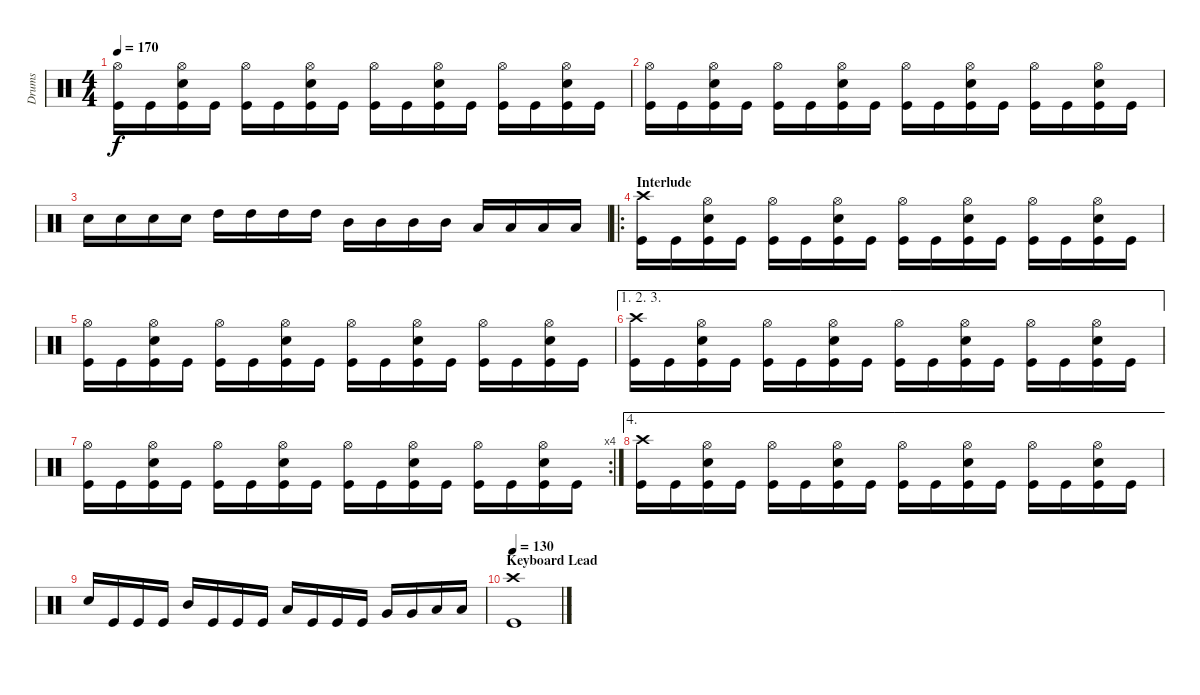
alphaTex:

\track ("Drums" "Drums") {instrument percussion}
\staff {score}
\articulation defaults
\ts (4 4)
\tempo 170
\clef neutral
\ks c
("Hi-Hat (open)" "Kick (hit)").16{dy f} "Kick (hit)".16 ("Hi-Hat (open)" "Snare (hit) 2" "Kick (hit)").16 "Kick (hit)".16 ("Hi-Hat (open)" "Kick (hit)").16 "Kick (hit)".16 ("Hi-Hat (open)" "Snare (hit) 2" "Kick (hit)").16 "Kick (hit)".16 ("Hi-Hat (open)" "Kick (hit)").16 "Kick (hit)".16 ("Hi-Hat (open)" "Snare (hit) 2" "Kick (hit)").16 "Kick (hit)".16 ("Hi-Hat (open)" "Kick (hit)").16 "Kick (hit)".16 ("Hi-Hat (open)" "Snare (hit) 2" "Kick (hit)").16 "Kick (hit)".16 |
("Hi-Hat (open)" "Kick (hit)").16 "Kick (hit)".16 ("Hi-Hat (open)" "Snare (hit) 2" "Kick (hit)").16 "Kick (hit)".16 ("Hi-Hat (open)" "Kick (hit)").16 "Kick (hit)".16 ("Hi-Hat (open)" "Snare (hit) 2" "Kick (hit)").16 "Kick (hit)".16 ("Hi-Hat (open)" "Kick (hit)").16 "Kick (hit)".16 ("Hi-Hat (open)" "Snare (hit) 2" "Kick (hit)").16 "Kick (hit)".16 ("Hi-Hat (open)" "Kick (hit)").16 "Kick (hit)".16 ("Hi-Hat (open)" "Snare (hit) 2" "Kick (hit)").16 "Kick (hit)".16 |
"Snare (hit) 2".16 "Snare (hit) 2".16 "Snare (hit) 2".16 "Snare (hit) 2".16 "High Tom (hit)".16 "High Tom (hit)".16 "High Tom (hit)".16 "High Tom (hit)".16 "Mid Tom (hit)".16 "Mid Tom (hit)".16 "Mid Tom (hit)".16 "Mid Tom (hit)".16 "Low Tom (hit)".16 "Low Tom (hit)".16 "Low Tom (hit)".16 "Low Tom (hit)".16 |
\ro
\section ("" "Interlude")
("Crash high (hit)" "Kick (hit)").16 "Kick (hit)".16 ("Hi-Hat (open)" "Snare (hit) 2" "Kick (hit)").16 "Kick (hit)".16 ("Hi-Hat (open)" "Kick (hit)").16 "Kick (hit)".16 ("Hi-Hat (open)" "Snare (hit) 2" "Kick (hit)").16 "Kick (hit)".16 ("Hi-Hat (open)" "Kick (hit)").16 "Kick (hit)".16 ("Hi-Hat (open)" "Snare (hit) 2" "Kick (hit)").16 "Kick (hit)".16 ("Hi-Hat (open)" "Kick (hit)").16 "Kick (hit)".16 ("Hi-Hat (open)" "Snare (hit) 2" "Kick (hit)").16 "Kick (hit)".16 |
("Hi-Hat (open)" "Kick (hit)").16 "Kick (hit)".16 ("Hi-Hat (open)" "Snare (hit) 2" "Kick (hit)").16 "Kick (hit)".16 ("Hi-Hat (open)" "Kick (hit)").16 "Kick (hit)".16 ("Hi-Hat (open)" "Snare (hit) 2" "Kick (hit)").16 "Kick (hit)".16 ("Hi-Hat (open)" "Kick (hit)").16 "Kick (hit)".16 ("Hi-Hat (open)" "Snare (hit) 2" "Kick (hit)").16 "Kick (hit)".16 ("Hi-Hat (open)" "Kick (hit)").16 "Kick (hit)".16 ("Hi-Hat (open)" "Snare (hit) 2" "Kick (hit)").16 "Kick (hit)".16 |
\ae (1 2 3)
("Crash high (hit)" "Kick (hit)").16 "Kick (hit)".16 ("Hi-Hat (open)" "Snare (hit) 2" "Kick (hit)").16 "Kick (hit)".16 ("Hi-Hat (open)" "Kick (hit)").16 "Kick (hit)".16 ("Hi-Hat (open)" "Snare (hit) 2" "Kick (hit)").16 "Kick (hit)".16 ("Hi-Hat (open)" "Kick (hit)").16 "Kick (hit)".16 ("Hi-Hat (open)" "Snare (hit) 2" "Kick (hit)").16 "Kick (hit)".16 ("Hi-Hat (open)" "Kick (hit)").16 "Kick (hit)".16 ("Hi-Hat (open)" "Snare (hit) 2" "Kick (hit)").16 "Kick (hit)".16 |
\rc 4
("Hi-Hat (open)" "Kick (hit)").16 "Kick (hit)".16 ("Hi-Hat (open)" "Snare (hit) 2" "Kick (hit)").16 "Kick (hit)".16 ("Hi-Hat (open)" "Kick (hit)").16 "Kick (hit)".16 ("Hi-Hat (open)" "Snare (hit) 2" "Kick (hit)").16 "Kick (hit)".16 ("Hi-Hat (open)" "Kick (hit)").16 "Kick (hit)".16 ("Hi-Hat (open)" "Snare (hit) 2" "Kick (hit)").16 "Kick (hit)".16 ("Hi-Hat (open)" "Kick (hit)").16 "Kick (hit)".16 ("Hi-Hat (open)" "Snare (hit) 2" "Kick (hit)").16 "Kick (hit)".16 |
\ae 4
("Crash high (hit)" "Kick (hit)").16 "Kick (hit)".16 ("Hi-Hat (open)" "Snare (hit) 2" "Kick (hit)").16 "Kick (hit)".16 ("Hi-Hat (open)" "Kick (hit)").16 "Kick (hit)".16 ("Hi-Hat (open)" "Snare (hit) 2" "Kick (hit)").16 "Kick (hit)".16 ("Hi-Hat (open)" "Kick (hit)").16 "Kick (hit)".16 ("Hi-Hat (open)" "Snare (hit) 2" "Kick (hit)").16 "Kick (hit)".16 ("Hi-Hat (open)" "Kick (hit)").16 "Kick (hit)".16 ("Hi-Hat (open)" "Snare (hit) 2" "Kick (hit)").16 "Kick (hit)".16 |
"Snare (hit) 2".16 "Kick (hit)".16 "Kick (hit)".16 "Kick (hit)".16 "Mid Tom (hit)".16 "Kick (hit)".16 "Kick (hit)".16 "Kick (hit)".16 "Low Tom (hit)".16 "Kick (hit)".16 "Kick (hit)".16 "Kick (hit)".16 "Very Low Tom (hit)".16 "Very Low Tom (hit)".16 "Low Floor Tom (hit)".16 "Low Floor Tom (hit)".16 |
\section ("" "Keyboard Lead")
\tempo 130
("Crash high (hit)" "Kick (hit)").1
